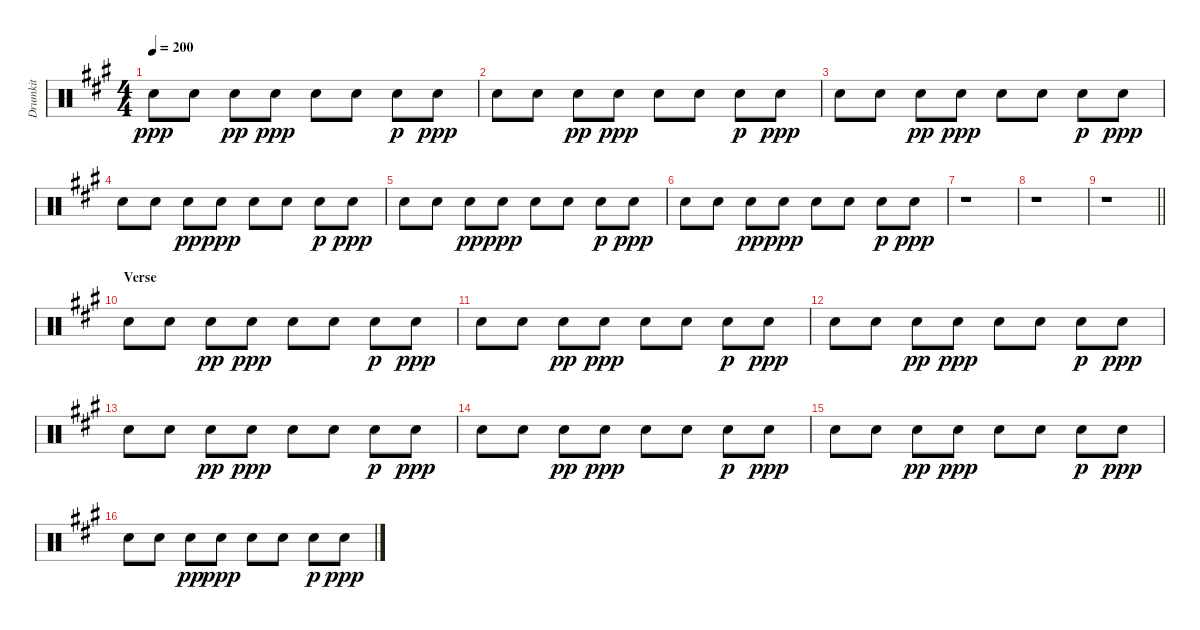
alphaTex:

\track ("Drumkit" "Drumkit") {instrument percussion}
\staff {score}
\articulation defaults
\ts (4 4)
\tempo 200
\clef neutral
\ks a "Snare (hit) 2".8{dy ppp} "Snare (hit) 2".8 "Snare (hit) 2".8{dy pp} "Snare (hit) 2".8{dy ppp} "Snare (hit) 2".8 "Snare (hit) 2".8 "Snare (hit) 2".8{dy p} "Snare (hit) 2".8{dy ppp}
|
"Snare (hit) 2".8 "Snare (hit) 2".8 "Snare (hit) 2".8{dy pp} "Snare (hit) 2".8{dy ppp} "Snare (hit) 2".8 "Snare (hit) 2".8 "Snare (hit) 2".8{dy p} "Snare (hit) 2".8{dy ppp} |
"Snare (hit) 2".8 "Snare (hit) 2".8 "Snare (hit) 2".8{dy pp} "Snare (hit) 2".8{dy ppp} "Snare (hit) 2".8 "Snare (hit) 2".8 "Snare (hit) 2".8{dy p} "Snare (hit) 2".8{dy ppp} |
"Snare (hit) 2".8 "Snare (hit) 2".8 "Snare (hit) 2".8{dy pp} "Snare (hit) 2".8{dy ppp} "Snare (hit) 2".8 "Snare (hit) 2".8 "Snare (hit) 2".8{dy p} "Snare (hit) 2".8{dy ppp} |
"Snare (hit) 2".8 "Snare (hit) 2".8 "Snare (hit) 2".8{dy pp} "Snare (hit) 2".8{dy ppp} "Snare (hit) 2".8 "Snare (hit) 2".8 "Snare (hit) 2".8{dy p} "Snare (hit) 2".8{dy ppp} |
"Snare (hit) 2".8 "Snare (hit) 2".8 "Snare (hit) 2".8{dy pp} "Snare (hit) 2".8{dy ppp} "Snare (hit) 2".8 "Snare (hit) 2".8 "Snare (hit) 2".8{dy p} "Snare (hit) 2".8{dy ppp} |
r.1 |
r.1 |
\barLineRight lightlight
r.1 |
\section ("" "Verse")
"Snare (hit) 2".8 "Snare (hit) 2".8 "Snare (hit) 2".8{dy pp} "Snare (hit) 2".8{dy ppp} "Snare (hit) 2".8 "Snare (hit) 2".8 "Snare (hit) 2".8{dy p} "Snare (hit) 2".8{dy ppp} |
"Snare (hit) 2".8 "Snare (hit) 2".8 "Snare (hit) 2".8{dy pp} "Snare (hit) 2".8{dy ppp} "Snare (hit) 2".8 "Snare (hit) 2".8 "Snare (hit) 2".8{dy p} "Snare (hit) 2".8{dy ppp} |
"Snare (hit) 2".8 "Snare (hit) 2".8 "Snare (hit) 2".8{dy pp} "Snare (hit) 2".8{dy ppp} "Snare (hit) 2".8 "Snare (hit) 2".8 "Snare (hit) 2".8{dy p} "Snare (hit) 2".8{dy ppp} |
"Snare (hit) 2".8 "Snare (hit) 2".8 "Snare (hit) 2".8{dy pp} "Snare (hit) 2".8{dy ppp} "Snare (hit) 2".8 "Snare (hit) 2".8 "Snare (hit) 2".8{dy p} "Snare (hit) 2".8{dy ppp} |
"Snare (hit) 2".8 "Snare (hit) 2".8 "Snare (hit) 2".8{dy pp} "Snare (hit) 2".8{dy ppp} "Snare (hit) 2".8 "Snare (hit) 2".8 "Snare (hit) 2".8{dy p} "Snare (hit) 2".8{dy ppp} |
"Snare (hit) 2".8 "Snare (hit) 2".8 "Snare (hit) 2".8{dy pp} "Snare (hit) 2".8{dy ppp} "Snare (hit) 2".8 "Snare (hit) 2".8 "Snare (hit) 2".8{dy p} "Snare (hit) 2".8{dy ppp} |
"Snare (hit) 2".8 "Snare (hit) 2".8 "Snare (hit) 2".8{dy pp} "Snare (hit) 2".8{dy ppp} "Snare (hit) 2".8 "Snare (hit) 2".8 "Snare (hit) 2".8{dy p} "Snare (hit) 2".8{dy ppp}
